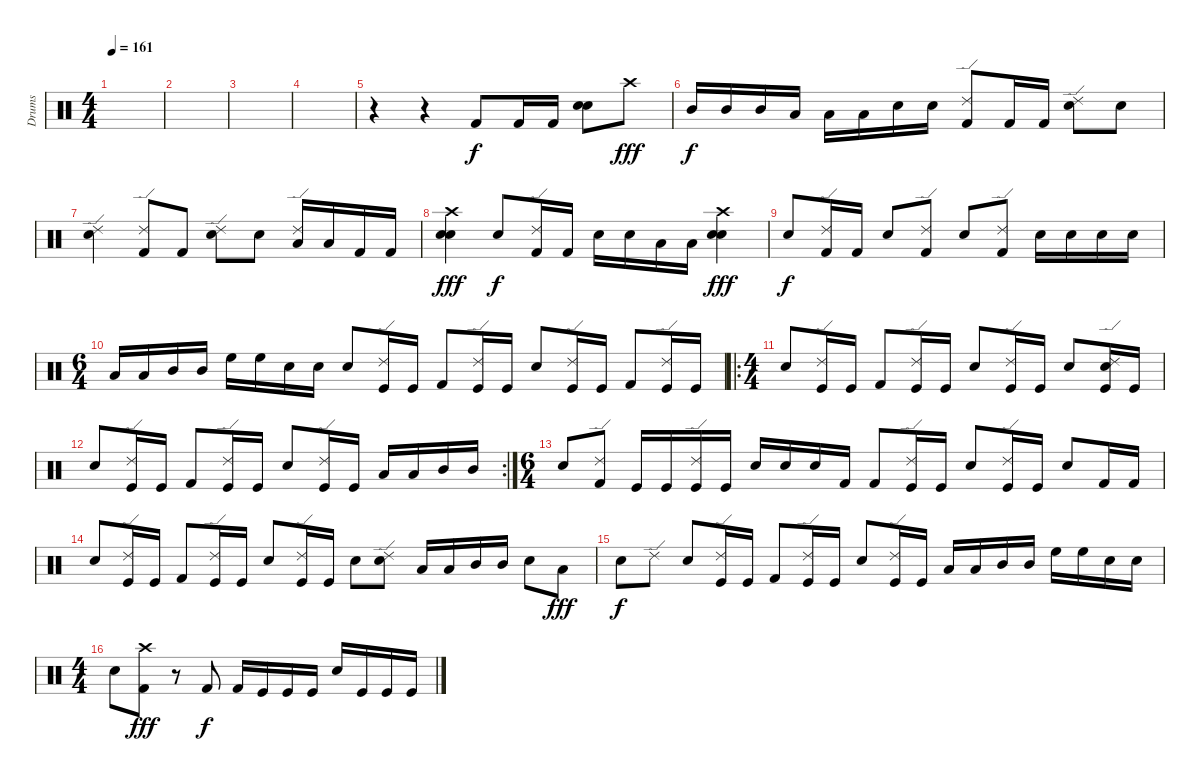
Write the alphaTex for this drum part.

\track ("Drums" "Drums") {instrument percussion}
\staff {score}
\articulation defaults
\ts (4 4)
\tempo 161
\clef neutral
\ks c
|
|
|
|
r.4 r.4 "Kick (hit) 2".8 "Kick (hit) 2".16 "Kick (hit) 2".16 ("Electric Snare (hit)" "Electric Snare (hit)").8 "Crash high (hit)".8{dy fff} |
"Mid Tom (hit)".16{dy f} "Mid Tom (hit)".16 "Mid Tom (hit)".16 "Low Tom (hit)".16 "Low Tom (hit)".16 "Low Tom (hit)".16 "Electric Snare (hit)".16 "Electric Snare (hit)".16 ("Ride (edge) 2" "Kick (hit) 2").8 "Kick (hit) 2".16 "Kick (hit) 2".16 ("Ride (edge) 2" "Electric Snare (hit)").8 "Electric Snare (hit)".8 |
("Ride (edge) 2" "Electric Snare (hit)").4 ("Ride (edge) 2" "Kick (hit) 2").8 "Kick (hit) 2".8 ("Ride (edge) 2" "Electric Snare (hit)").8 "Electric Snare (hit)".8 ("Ride (edge) 2" "Low Tom (hit)").16 "Low Tom (hit)".16 "Kick (hit) 2".16 "Kick (hit) 2".16 |
("Electric Snare (hit)" "Electric Snare (hit)" "Crash high (hit)").4{dy fff} "Electric Snare (hit)".8{dy f} ("Ride (edge) 2" "Kick (hit) 2").16 "Kick (hit) 2".16 "Electric Snare (hit)".16 "Electric Snare (hit)".16 "Low Tom (hit)".16 "Low Tom (hit)".16 ("Electric Snare (hit)" "Electric Snare (hit)" "Crash high (hit)").4{dy fff} |
"Electric Snare (hit)".8{dy f} ("Ride (edge) 2" "Kick (hit) 2").16 "Kick (hit) 2".16 "Electric Snare (hit)".8 ("Ride (edge) 2" "Kick (hit) 2").8 "Electric Snare (hit)".8 ("Ride (edge) 2" "Kick (hit) 2").8 "Electric Snare (hit)".16 "Electric Snare (hit)".16 "Electric Snare (hit)".16 "Electric Snare (hit)".16 |
\ts (6 4)
"Low Tom (hit)".16 "Low Tom (hit)".16 "Mid Tom (hit)".16 "Mid Tom (hit)".16 "High Floor Tom (hit)".16 "High Floor Tom (hit)".16 "Electric Snare (hit)".16 "Electric Snare (hit)".16 "Electric Snare (hit)".8 ("Ride (edge) 2" "Kick (hit)").16 "Kick (hit)".16 "Kick (hit) 2".8 ("Ride (edge) 2" "Kick (hit)").16 "Kick (hit)".16 "Electric Snare (hit)".8 ("Ride (edge) 2" "Kick (hit)").16 "Kick (hit)".16 "Kick (hit) 2".8 ("Ride (edge) 2" "Kick (hit)").16 "Kick (hit)".16 |
\ro
\ts (4 4)
"Electric Snare (hit)".8 ("Ride (edge) 2" "Kick (hit)").16 "Kick (hit)".16 "Kick (hit) 2".8 ("Ride (edge) 2" "Kick (hit)").16 "Kick (hit)".16 "Electric Snare (hit)".8 ("Ride (edge) 2" "Kick (hit)").16 "Kick (hit)".16 "Electric Snare (hit)".8 ("Electric Snare (hit)" "Ride (edge) 2" "Kick (hit)").16 "Kick (hit)".16 |
\rc 2 "Electric Snare (hit)".8
("Ride (edge) 2" "Kick (hit)").16 "Kick (hit)".16 "Kick (hit) 2".8 ("Ride (edge) 2" "Kick (hit)").16 "Kick (hit)".16 "Electric Snare (hit)".8 ("Ride (edge) 2" "Kick (hit)").16 "Kick (hit)".16 "Low Tom (hit)".16 "Low Tom (hit)".16 "Mid Tom (hit)".16 "Mid Tom (hit)".16 |
\ts (6 4)
"Electric Snare (hit)".8 ("Ride (edge) 2" "Kick (hit) 2").8 "Kick (hit)".16 "Kick (hit)".16 ("Ride (edge) 2" "Kick (hit)").16 "Kick (hit)".16 "Electric Snare (hit)".16 "Electric Snare (hit)".16 "Electric Snare (hit)".16 "Kick (hit) 2".16 "Kick (hit) 2".8 ("Ride (edge) 2" "Kick (hit)").16 "Kick (hit)".16 "Electric Snare (hit)".8 ("Ride (edge) 2" "Kick (hit)").16 "Kick (hit)".16 "Electric Snare (hit)".8 "Kick (hit) 2".16 "Kick (hit) 2".16 |
"Electric Snare (hit)".8 ("Ride (edge) 2" "Kick (hit)").16 "Kick (hit)".16 "Kick (hit) 2".8 ("Ride (edge) 2" "Kick (hit)").16 "Kick (hit)".16 "Electric Snare (hit)".8 ("Ride (edge) 2" "Kick (hit)").16 "Kick (hit)".16 "Electric Snare (hit)".8 ("Electric Snare (hit)" "Ride (edge) 2").8 "Low Tom (hit)".16 "Low Tom (hit)".16 "Mid Tom (hit)".16 "Mid Tom (hit)".16 "Electric Snare (hit)".8 "Low Tom (hit)".8{dy fff} |
"Electric Snare (hit)".8{dy f} "Ride (edge) 2".8 "Electric Snare (hit)".8 ("Ride (edge) 2" "Kick (hit)").16 "Kick (hit)".16 "Kick (hit) 2".8 ("Ride (edge) 2" "Kick (hit)").16 "Kick (hit)".16 "Electric Snare (hit)".8 ("Ride (edge) 2" "Kick (hit)").16 "Kick (hit)".16 "Low Tom (hit)".16 "Low Tom (hit)".16 "Mid Tom (hit)".16 "Mid Tom (hit)".16 "High Floor Tom (hit)".16 "High Floor Tom (hit)".16 "Electric Snare (hit)".16 "Electric Snare (hit)".16 |
\ts (4 4)
"Electric Snare (hit)".8 ("Crash high (hit)" "Kick (hit) 2").8{dy fff} r.8 "Kick (hit) 2".8{dy f} "Kick (hit) 2".16 "Kick (hit)".16 "Kick (hit)".16 "Kick (hit)".16 "Electric Snare (hit)".16 "Kick (hit)".16 "Kick (hit)".16 "Kick (hit)".16
